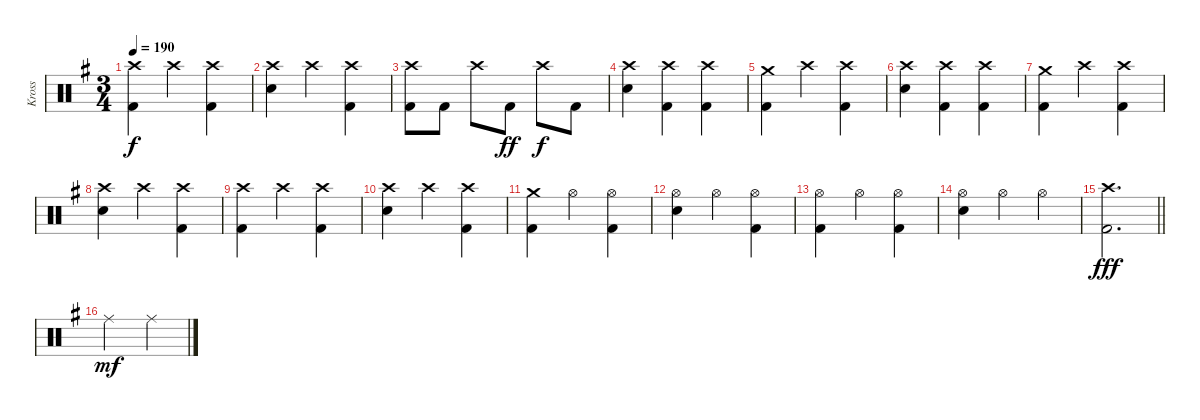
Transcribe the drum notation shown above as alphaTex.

\track ("Kross" "Kross") {instrument percussion}
\staff {score}
\articulation defaults
\ts (3 4)
\tempo 190
\clef neutral
\ks g
("Crash high (hit)" "Kick (hit) 2").4{dy f} "Crash high (hit)".4 ("Crash high (hit)" "Kick (hit) 2").4 |
("Crash high (hit)" "Snare (hit) 2").4 "Crash high (hit)".4 ("Crash high (hit)" "Kick (hit) 2").4 |
("Crash high (hit)" "Kick (hit) 2").8 "Kick (hit) 2".8 "Crash high (hit)".8 "Kick (hit) 2".8{dy ff} "Crash high (hit)".8{dy f} "Kick (hit) 2".8 |
("Crash high (hit)" "Snare (hit) 2").4 ("Crash high (hit)" "Kick (hit) 2").4 ("Crash high (hit)" "Kick (hit) 2").4 |
("Crash medium (hit)" "Kick (hit) 2").4 "Crash high (hit)".4 ("Crash high (hit)" "Kick (hit) 2").4 |
("Crash high (hit)" "Snare (hit) 2").4 ("Crash high (hit)" "Kick (hit) 2").4 ("Crash high (hit)" "Kick (hit) 2").4 |
("Crash medium (hit)" "Kick (hit) 2").4 "Crash high (hit)".4 ("Crash high (hit)" "Kick (hit) 2").4 |
("Crash high (hit)" "Snare (hit) 2").4 "Crash high (hit)".4 ("Crash high (hit)" "Kick (hit) 2").4 |
("Crash high (hit)" "Kick (hit) 2").4 "Crash high (hit)".4 ("Crash high (hit)" "Kick (hit) 2").4 |
("Crash high (hit)" "Snare (hit) 2").4 "Crash high (hit)".4 ("Crash high (hit)" "Kick (hit) 2").4 |
("Crash medium (hit)" "Kick (hit) 2").4 "Hi-Hat (open)".4 ("Hi-Hat (open)" "Kick (hit) 2").4 |
("Hi-Hat (open)" "Snare (hit) 2").4 "Hi-Hat (open)".4 ("Hi-Hat (open)" "Kick (hit) 2").4 |
("Hi-Hat (open)" "Kick (hit) 2").4 "Hi-Hat (open)".4 ("Hi-Hat (open)" "Kick (hit) 2").4 |
("Hi-Hat (open)" "Snare (hit) 2").4 "Hi-Hat (open)".4 "Hi-Hat (open)".4 |
\barLineRight lightlight
("Crash high (hit)" "Kick (hit) 2").2{d dy fff} |
"Ride (middle)".2{dy mf} "Ride (middle)".4
